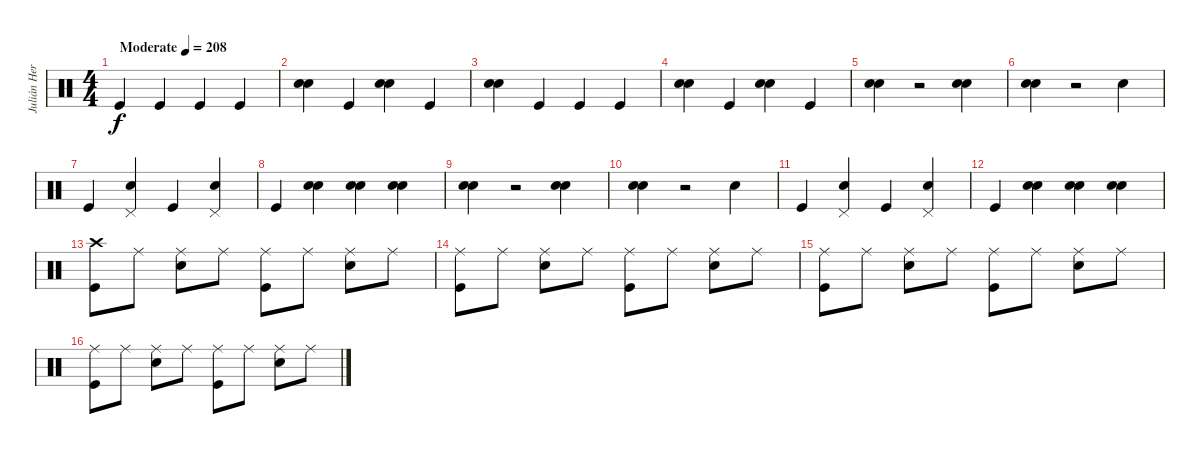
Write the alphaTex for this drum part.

\track ("Julián Hernandez - Batería" "Julián Her") {instrument percussion}
\staff {score}
\articulation defaults
\ts (4 4)
\tempo (208 "Moderate")
\clef neutral
\ks c "Kick (hit)".4{dy f} "Kick (hit)".4 "Kick (hit)".4 "Kick (hit)".4
|
("Electric Snare (hit)" "Electric Snare (hit)").4 "Kick (hit)".4 ("Electric Snare (hit)" "Electric Snare (hit)").4 "Kick (hit)".4 |
("Electric Snare (hit)" "Electric Snare (hit)").4 "Kick (hit)".4 "Kick (hit)".4 "Kick (hit)".4 |
("Electric Snare (hit)" "Electric Snare (hit)").4 "Kick (hit)".4 ("Electric Snare (hit)" "Electric Snare (hit)").4 "Kick (hit)".4 |
("Electric Snare (hit)" "Electric Snare (hit)").4 r.2 ("Electric Snare (hit)" "Electric Snare (hit)").4 |
("Electric Snare (hit)" "Electric Snare (hit)").4 r.2 "Electric Snare (hit)".4 |
"Kick (hit)".4 ("Electric Snare (hit)" "Pedal Hi-Hat (hit)").4 "Kick (hit)".4 ("Electric Snare (hit)" "Pedal Hi-Hat (hit)").4 |
"Kick (hit)".4 ("Electric Snare (hit)" "Electric Snare (hit)").4 ("Electric Snare (hit)" "Electric Snare (hit)").4 ("Electric Snare (hit)" "Electric Snare (hit)").4 |
("Electric Snare (hit)" "Electric Snare (hit)").4 r.2 ("Electric Snare (hit)" "Electric Snare (hit)").4 |
("Electric Snare (hit)" "Electric Snare (hit)").4 r.2 "Electric Snare (hit)".4 |
"Kick (hit)".4 ("Electric Snare (hit)" "Pedal Hi-Hat (hit)").4 "Kick (hit)".4 ("Electric Snare (hit)" "Pedal Hi-Hat (hit)").4 |
"Kick (hit)".4 ("Electric Snare (hit)" "Electric Snare (hit)").4 ("Electric Snare (hit)" "Electric Snare (hit)").4 ("Electric Snare (hit)" "Electric Snare (hit)").4 |
("Crash high (hit)" "Kick (hit)").8 "Ride (middle)".8 ("Ride (middle)" "Electric Snare (hit)").8 "Ride (middle)".8 ("Ride (middle)" "Kick (hit)").8 "Ride (middle)".8 ("Ride (middle)" "Electric Snare (hit)").8 "Ride (middle)".8 |
("Ride (middle)" "Kick (hit)").8 "Ride (middle)".8 ("Ride (middle)" "Electric Snare (hit)").8 "Ride (middle)".8 ("Ride (middle)" "Kick (hit)").8 "Ride (middle)".8 ("Ride (middle)" "Electric Snare (hit)").8 "Ride (middle)".8 |
("Ride (middle)" "Kick (hit)").8 "Ride (middle)".8 ("Ride (middle)" "Electric Snare (hit)").8 "Ride (middle)".8 ("Ride (middle)" "Kick (hit)").8 "Ride (middle)".8 ("Ride (middle)" "Electric Snare (hit)").8 "Ride (middle)".8 |
("Ride (middle)" "Kick (hit)").8 "Ride (middle)".8 ("Ride (middle)" "Electric Snare (hit)").8 "Ride (middle)".8 ("Ride (middle)" "Kick (hit)").8 "Ride (middle)".8 ("Ride (middle)" "Electric Snare (hit)").8 "Ride (middle)".8
